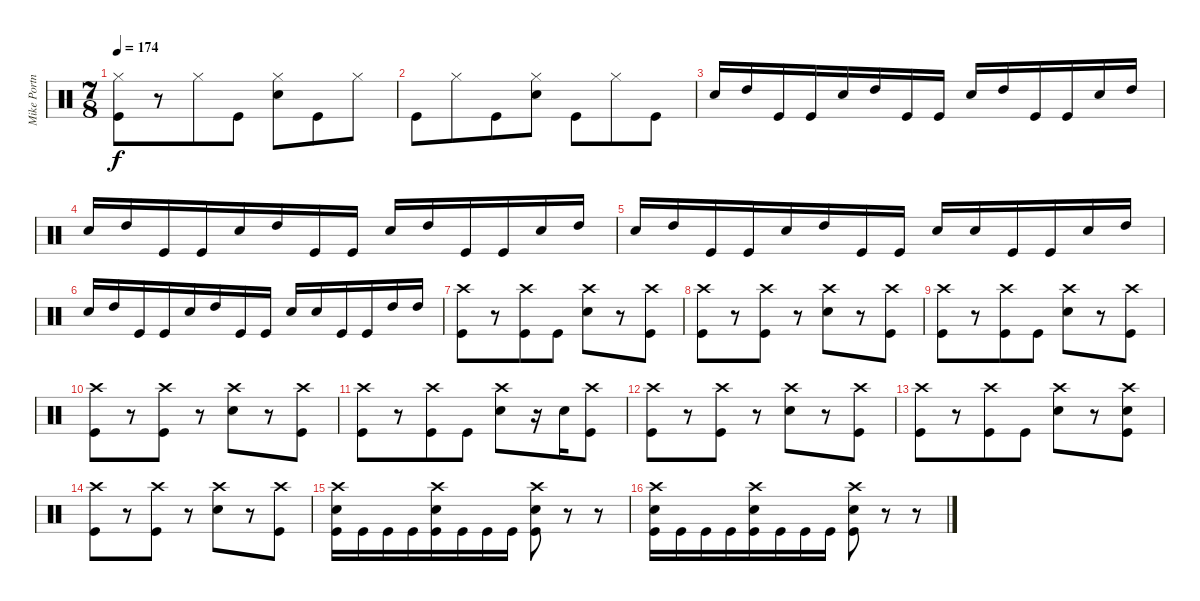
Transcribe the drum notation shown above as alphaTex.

\track ("Mike Portnoy" "Mike Portn") {instrument percussion}
\staff {score}
\articulation defaults
\ts (7 8)
\tempo 174
\clef neutral
\ks c
("Hi-Hat (closed)" "Kick (hit)").8{dy f} r.8 "Hi-Hat (closed)".8 "Kick (hit)".8 ("Snare (hit) 2" "Hi-Hat (closed)").8 "Kick (hit)".8 "Hi-Hat (closed)".8 |
"Kick (hit)".8 "Hi-Hat (closed)".8 "Kick (hit)".8 ("Snare (hit) 2" "Hi-Hat (closed)").8 "Kick (hit)".8 "Hi-Hat (closed)".8 "Kick (hit)".8 |
"Snare (hit) 2".16 "High Tom (hit)".16 "Kick (hit)".16 "Kick (hit)".16 "Snare (hit) 2".16 "High Tom (hit)".16 "Kick (hit)".16 "Kick (hit)".16 "Snare (hit) 2".16 "High Tom (hit)".16 "Kick (hit)".16 "Kick (hit)".16 "Snare (hit) 2".16 "High Tom (hit)".16 |
"Snare (hit) 2".16 "High Tom (hit)".16 "Kick (hit)".16 "Kick (hit)".16 "Snare (hit) 2".16 "High Tom (hit)".16 "Kick (hit)".16 "Kick (hit)".16 "Snare (hit) 2".16 "High Tom (hit)".16 "Kick (hit)".16 "Kick (hit)".16 "Snare (hit) 2".16 "High Tom (hit)".16 |
"Snare (hit) 2".16 "High Tom (hit)".16 "Kick (hit)".16 "Kick (hit)".16 "Snare (hit) 2".16 "High Tom (hit)".16 "Kick (hit)".16 "Kick (hit)".16 "Snare (hit) 2".16 "Snare (hit) 2".16 "Kick (hit)".16 "Kick (hit)".16 "Snare (hit) 2".16 "High Tom (hit)".16 |
"Snare (hit) 2".16 "High Tom (hit)".16 "Kick (hit)".16 "Kick (hit)".16 "Snare (hit) 2".16 "High Tom (hit)".16 "Kick (hit)".16 "Kick (hit)".16 "Snare (hit) 2".16 "Snare (hit) 2".16 "Kick (hit)".16 "Kick (hit)".16 "High Tom (hit)".16 "High Tom (hit)".16 |
("Crash high (hit)" "Kick (hit)").8 r.8 ("Crash high (hit)" "Kick (hit)").8 "Kick (hit)".8 ("Snare (hit) 2" "Crash high (hit)").8 r.8 ("Crash high (hit)" "Kick (hit)").8 |
("Crash high (hit)" "Kick (hit)").8 r.8 ("Crash high (hit)" "Kick (hit)").8 r.8 ("Snare (hit) 2" "Crash high (hit)").8 r.8 ("Crash high (hit)" "Kick (hit)").8 |
("Crash high (hit)" "Kick (hit)").8 r.8 ("Crash high (hit)" "Kick (hit)").8 "Kick (hit)".8 ("Snare (hit) 2" "Crash high (hit)").8 r.8 ("Crash high (hit)" "Kick (hit)").8 |
("Crash high (hit)" "Kick (hit)").8 r.8 ("Crash high (hit)" "Kick (hit)").8 r.8 ("Snare (hit) 2" "Crash high (hit)").8 r.8 ("Crash high (hit)" "Kick (hit)").8 |
("Crash high (hit)" "Kick (hit)").8 r.8 ("Crash high (hit)" "Kick (hit)").8 "Kick (hit)".8 ("Snare (hit) 2" "Crash high (hit)").8 r.16 "Snare (hit) 2".16 ("Crash high (hit)" "Kick (hit)").8 |
("Crash high (hit)" "Kick (hit)").8 r.8 ("Crash high (hit)" "Kick (hit)").8 r.8 ("Snare (hit) 2" "Crash high (hit)").8 r.8 ("Crash high (hit)" "Kick (hit)").8 |
("Crash high (hit)" "Kick (hit)").8 r.8 ("Crash high (hit)" "Kick (hit)").8 "Kick (hit)".8 ("Snare (hit) 2" "Crash high (hit)").8 r.8 ("Snare (hit) 2" "Crash high (hit)" "Kick (hit)").8 |
("Crash high (hit)" "Kick (hit)").8 r.8 ("Crash high (hit)" "Kick (hit)").8 r.8 ("Snare (hit) 2" "Crash high (hit)").8 r.8 ("Crash high (hit)" "Kick (hit)").8 |
("Snare (hit) 2" "Crash high (hit)" "Kick (hit)").16 "Kick (hit)".16 "Kick (hit)".16 "Kick (hit)".16 ("Snare (hit) 2" "Crash high (hit)" "Kick (hit)").16 "Kick (hit)".16 "Kick (hit)".16 "Kick (hit)".16 ("Snare (hit) 2" "Crash high (hit)" "Kick (hit)").8 r.8 r.8 |
("Snare (hit) 2" "Crash high (hit)" "Kick (hit)").16 "Kick (hit)".16 "Kick (hit)".16 "Kick (hit)".16 ("Snare (hit) 2" "Crash high (hit)" "Kick (hit)").16 "Kick (hit)".16 "Kick (hit)".16 "Kick (hit)".16 ("Snare (hit) 2" "Crash high (hit)" "Kick (hit)").8 r.8 r.8
